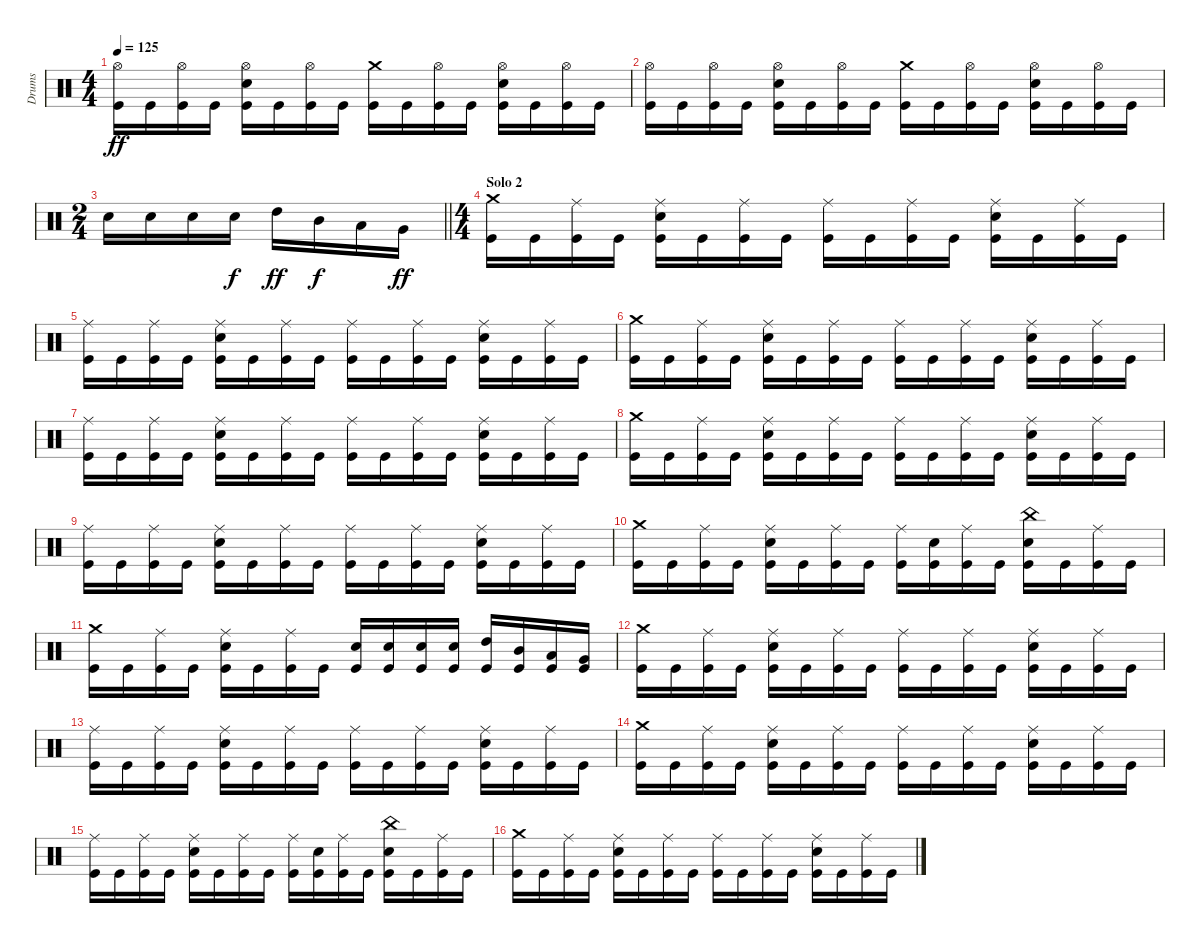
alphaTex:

\track ("Drums" "Drums") {instrument percussion}
\staff {score}
\articulation defaults
\ts (4 4)
\tempo 125
\clef neutral
\ks c
("Hi-Hat (open)" "Kick (hit)").16{dy ff} "Kick (hit)".16 ("Hi-Hat (open)" "Kick (hit)").16 "Kick (hit)".16 ("Hi-Hat (open)" "Snare (hit) 2" "Kick (hit)").16 "Kick (hit)".16 ("Hi-Hat (open)" "Kick (hit)").16 "Kick (hit)".16 ("Crash medium (hit)" "Kick (hit)").16 "Kick (hit)".16 ("Hi-Hat (open)" "Kick (hit)").16 "Kick (hit)".16 ("Hi-Hat (open)" "Snare (hit) 2" "Kick (hit)").16 "Kick (hit)".16 ("Hi-Hat (open)" "Kick (hit)").16 "Kick (hit)".16 |
("Hi-Hat (open)" "Kick (hit)").16 "Kick (hit)".16 ("Hi-Hat (open)" "Kick (hit)").16 "Kick (hit)".16 ("Hi-Hat (open)" "Snare (hit) 2" "Kick (hit)").16 "Kick (hit)".16 ("Hi-Hat (open)" "Kick (hit)").16 "Kick (hit)".16 ("Crash medium (hit)" "Kick (hit)").16 "Kick (hit)".16 ("Hi-Hat (open)" "Kick (hit)").16 "Kick (hit)".16 ("Hi-Hat (open)" "Snare (hit) 2" "Kick (hit)").16 "Kick (hit)".16 ("Hi-Hat (open)" "Kick (hit)").16 "Kick (hit)".16 |
\ts (2 4)
\barLineRight lightlight "Snare (hit) 2".16 "Snare (hit) 2".16 "Snare (hit) 2".16 "Snare (hit) 2".16{dy f} "High Tom (hit)".16{dy ff} "Mid Tom (hit)".16{dy f} "Low Tom (hit)".16 "Very Low Tom (hit)".16{dy ff}
|
\ts (4 4)
\section ("" "Solo 2")
("Crash medium (hit)" "Kick (hit)").16 "Kick (hit)".16 ("Ride (middle)" "Kick (hit)").16 "Kick (hit)".16 ("Ride (middle)" "Snare (hit) 2" "Kick (hit)").16 "Kick (hit)".16 ("Ride (middle)" "Kick (hit)").16 "Kick (hit)".16 ("Ride (middle)" "Kick (hit)").16 "Kick (hit)".16 ("Ride (middle)" "Kick (hit)").16 "Kick (hit)".16 ("Ride (middle)" "Snare (hit) 2" "Kick (hit)").16 "Kick (hit)".16 ("Ride (middle)" "Kick (hit)").16 "Kick (hit)".16 |
("Ride (middle)" "Kick (hit)").16 "Kick (hit)".16 ("Ride (middle)" "Kick (hit)").16 "Kick (hit)".16 ("Ride (middle)" "Snare (hit) 2" "Kick (hit)").16 "Kick (hit)".16 ("Ride (middle)" "Kick (hit)").16 "Kick (hit)".16 ("Ride (middle)" "Kick (hit)").16 "Kick (hit)".16 ("Ride (middle)" "Kick (hit)").16 "Kick (hit)".16 ("Ride (middle)" "Snare (hit) 2" "Kick (hit)").16 "Kick (hit)".16 ("Ride (middle)" "Kick (hit)").16 "Kick (hit)".16 |
("Crash medium (hit)" "Kick (hit)").16 "Kick (hit)".16 ("Ride (middle)" "Kick (hit)").16 "Kick (hit)".16 ("Ride (middle)" "Snare (hit) 2" "Kick (hit)").16 "Kick (hit)".16 ("Ride (middle)" "Kick (hit)").16 "Kick (hit)".16 ("Ride (middle)" "Kick (hit)").16 "Kick (hit)".16 ("Ride (middle)" "Kick (hit)").16 "Kick (hit)".16 ("Ride (middle)" "Snare (hit) 2" "Kick (hit)").16 "Kick (hit)".16 ("Ride (middle)" "Kick (hit)").16 "Kick (hit)".16 |
("Ride (middle)" "Kick (hit)").16 "Kick (hit)".16 ("Ride (middle)" "Kick (hit)").16 "Kick (hit)".16 ("Ride (middle)" "Snare (hit) 2" "Kick (hit)").16 "Kick (hit)".16 ("Ride (middle)" "Kick (hit)").16 "Kick (hit)".16 ("Ride (middle)" "Kick (hit)").16 "Kick (hit)".16 ("Ride (middle)" "Kick (hit)").16 "Kick (hit)".16 ("Ride (middle)" "Snare (hit) 2" "Kick (hit)").16 "Kick (hit)".16 ("Ride (middle)" "Kick (hit)").16 "Kick (hit)".16 |
("Crash medium (hit)" "Kick (hit)").16 "Kick (hit)".16 ("Ride (middle)" "Kick (hit)").16 "Kick (hit)".16 ("Ride (middle)" "Snare (hit) 2" "Kick (hit)").16 "Kick (hit)".16 ("Ride (middle)" "Kick (hit)").16 "Kick (hit)".16 ("Ride (middle)" "Kick (hit)").16 "Kick (hit)".16 ("Ride (middle)" "Kick (hit)").16 "Kick (hit)".16 ("Ride (middle)" "Snare (hit) 2" "Kick (hit)").16 "Kick (hit)".16 ("Ride (middle)" "Kick (hit)").16 "Kick (hit)".16 |
("Ride (middle)" "Kick (hit)").16 "Kick (hit)".16 ("Ride (middle)" "Kick (hit)").16 "Kick (hit)".16 ("Ride (middle)" "Snare (hit) 2" "Kick (hit)").16 "Kick (hit)".16 ("Ride (middle)" "Kick (hit)").16 "Kick (hit)".16 ("Ride (middle)" "Kick (hit)").16 "Kick (hit)".16 ("Ride (middle)" "Kick (hit)").16 "Kick (hit)".16 ("Ride (middle)" "Snare (hit) 2" "Kick (hit)").16 "Kick (hit)".16 ("Ride (middle)" "Kick (hit)").16 "Kick (hit)".16 |
("Crash medium (hit)" "Kick (hit)").16 "Kick (hit)".16 ("Ride (middle)" "Kick (hit)").16 "Kick (hit)".16 ("Ride (middle)" "Snare (hit) 2" "Kick (hit)").16 "Kick (hit)".16 ("Ride (middle)" "Kick (hit)").16 "Kick (hit)".16 ("Ride (middle)" "Kick (hit)").16 ("Snare (hit) 2" "Kick (hit)").16 ("Ride (middle)" "Kick (hit)").16 "Kick (hit)".16 ("China (hit)" "Snare (hit) 2" "Kick (hit)").16 "Kick (hit)".16 ("Ride (middle)" "Kick (hit)").16 "Kick (hit)".16 |
("Crash medium (hit)" "Kick (hit)").16 "Kick (hit)".16 ("Ride (middle)" "Kick (hit)").16 "Kick (hit)".16 ("Ride (middle)" "Snare (hit) 2" "Kick (hit)").16 "Kick (hit)".16 ("Ride (middle)" "Kick (hit)").16 "Kick (hit)".16 ("Snare (hit) 2" "Kick (hit)").16 ("Snare (hit) 2" "Kick (hit)").16 ("Snare (hit) 2" "Kick (hit)").16 ("Snare (hit) 2" "Kick (hit)").16 ("High Tom (hit)" "Kick (hit)").16 ("Mid Tom (hit)" "Kick (hit)").16 ("Low Tom (hit)" "Kick (hit)").16 ("Very Low Tom (hit)" "Kick (hit)").16 |
("Crash medium (hit)" "Kick (hit)").16 "Kick (hit)".16 ("Ride (middle)" "Kick (hit)").16 "Kick (hit)".16 ("Ride (middle)" "Snare (hit) 2" "Kick (hit)").16 "Kick (hit)".16 ("Ride (middle)" "Kick (hit)").16 "Kick (hit)".16 ("Ride (middle)" "Kick (hit)").16 "Kick (hit)".16 ("Ride (middle)" "Kick (hit)").16 "Kick (hit)".16 ("Ride (middle)" "Snare (hit) 2" "Kick (hit)").16 "Kick (hit)".16 ("Ride (middle)" "Kick (hit)").16 "Kick (hit)".16 |
("Ride (middle)" "Kick (hit)").16 "Kick (hit)".16 ("Ride (middle)" "Kick (hit)").16 "Kick (hit)".16 ("Ride (middle)" "Snare (hit) 2" "Kick (hit)").16 "Kick (hit)".16 ("Ride (middle)" "Kick (hit)").16 "Kick (hit)".16 ("Ride (middle)" "Kick (hit)").16 "Kick (hit)".16 ("Ride (middle)" "Kick (hit)").16 "Kick (hit)".16 ("Ride (middle)" "Snare (hit) 2" "Kick (hit)").16 "Kick (hit)".16 ("Ride (middle)" "Kick (hit)").16 "Kick (hit)".16 |
("Crash medium (hit)" "Kick (hit)").16 "Kick (hit)".16 ("Ride (middle)" "Kick (hit)").16 "Kick (hit)".16 ("Ride (middle)" "Snare (hit) 2" "Kick (hit)").16 "Kick (hit)".16 ("Ride (middle)" "Kick (hit)").16 "Kick (hit)".16 ("Ride (middle)" "Kick (hit)").16 "Kick (hit)".16 ("Ride (middle)" "Kick (hit)").16 "Kick (hit)".16 ("Ride (middle)" "Snare (hit) 2" "Kick (hit)").16 "Kick (hit)".16 ("Ride (middle)" "Kick (hit)").16 "Kick (hit)".16 |
("Ride (middle)" "Kick (hit)").16 "Kick (hit)".16 ("Ride (middle)" "Kick (hit)").16 "Kick (hit)".16 ("Ride (middle)" "Snare (hit) 2" "Kick (hit)").16 "Kick (hit)".16 ("Ride (middle)" "Kick (hit)").16 "Kick (hit)".16 ("Ride (middle)" "Kick (hit)").16 ("Snare (hit) 2" "Kick (hit)").16 ("Ride (middle)" "Kick (hit)").16 "Kick (hit)".16 ("China (hit)" "Snare (hit) 2" "Kick (hit)").16 "Kick (hit)".16 ("Ride (middle)" "Kick (hit)").16 "Kick (hit)".16 |
("Crash medium (hit)" "Kick (hit)").16 "Kick (hit)".16 ("Ride (middle)" "Kick (hit)").16 "Kick (hit)".16 ("Ride (middle)" "Snare (hit) 2" "Kick (hit)").16 "Kick (hit)".16 ("Ride (middle)" "Kick (hit)").16 "Kick (hit)".16 ("Ride (middle)" "Kick (hit)").16 "Kick (hit)".16 ("Ride (middle)" "Kick (hit)").16 "Kick (hit)".16 ("Ride (middle)" "Snare (hit) 2" "Kick (hit)").16 "Kick (hit)".16 ("Ride (middle)" "Kick (hit)").16 "Kick (hit)".16
